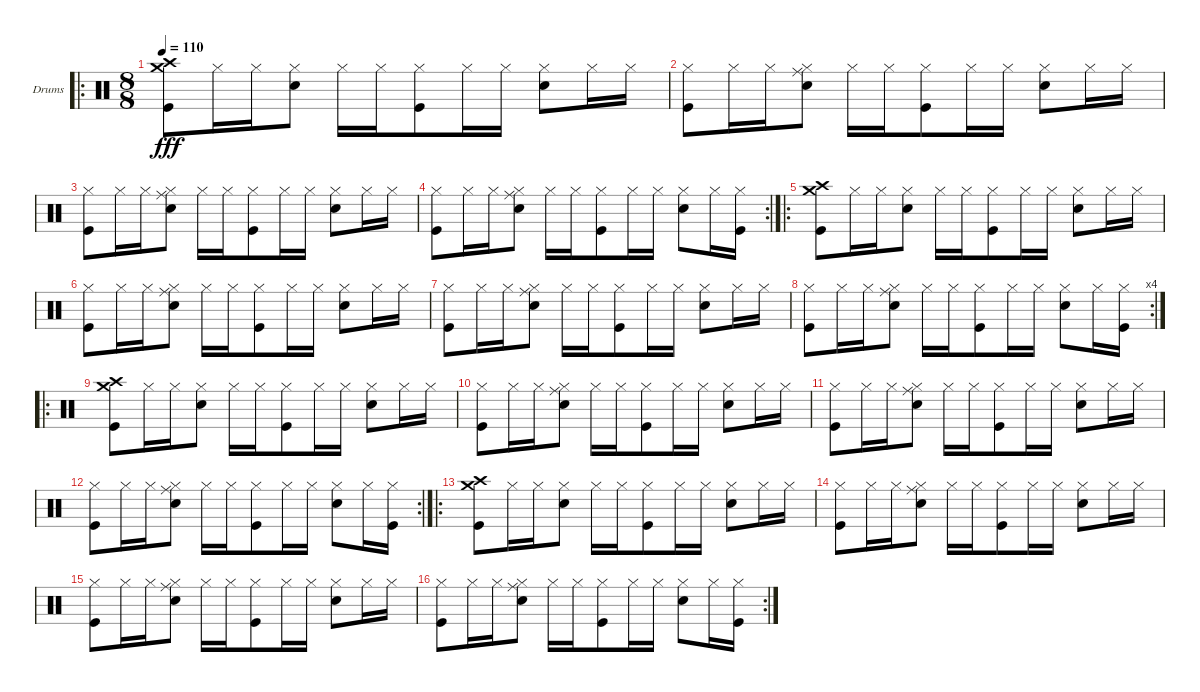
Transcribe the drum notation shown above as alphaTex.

\bracketExtendMode groupsimilarinstruments
\firstSystemTrackNameOrientation horizontal
\otherSystemsTrackNameOrientation horizontal
\track ("Сеня(Drumkit)" "Drums") {instrument percussion}
\staff {score}
\articulation defaults
\ro
\ts (8 8)
\tempo 110
\clef neutral
\ks c
("Kick (hit)" "Crash high (hit)" "Crash medium (hit)").8{dy fff} "Hi-Hat (closed)".16 "Hi-Hat (closed)".16 ("Hi-Hat (closed)" "Snare (hit) 2").8 "Hi-Hat (closed)".16 "Hi-Hat (closed)".16 ("Hi-Hat (closed)" "Kick (hit)").8 "Hi-Hat (closed)".16 "Hi-Hat (closed)".16 ("Hi-Hat (closed)" "Snare (hit) 2").8 "Hi-Hat (closed)".16 "Hi-Hat (closed)".16 |
("Kick (hit)" "Hi-Hat (closed)").8 "Hi-Hat (closed)".16 "Hi-Hat (closed)".16 ("Hi-Hat (closed)" "Ride (middle)" "Snare (hit) 2").8 "Hi-Hat (closed)".16 "Hi-Hat (closed)".16 ("Kick (hit)" "Hi-Hat (closed)").8 "Hi-Hat (closed)".16 "Hi-Hat (closed)".16 ("Snare (hit) 2" "Hi-Hat (closed)").8 "Hi-Hat (closed)".16 "Hi-Hat (closed)".16 |
("Kick (hit)" "Hi-Hat (closed)").8 "Hi-Hat (closed)".16 "Hi-Hat (closed)".16 ("Hi-Hat (closed)" "Snare (hit) 2" "Ride (middle)").8 "Hi-Hat (closed)".16 "Hi-Hat (closed)".16 ("Kick (hit)" "Hi-Hat (closed)").8 "Hi-Hat (closed)".16 "Hi-Hat (closed)".16 ("Snare (hit) 2" "Hi-Hat (closed)").8 "Hi-Hat (closed)".16 "Hi-Hat (closed)".16 |
\rc 2
("Kick (hit)" "Hi-Hat (closed)").8 "Hi-Hat (closed)".16 "Hi-Hat (closed)".16 ("Hi-Hat (closed)" "Snare (hit) 2" "Ride (middle)").8 "Hi-Hat (closed)".16 "Hi-Hat (closed)".16 ("Kick (hit)" "Hi-Hat (closed)").8 "Hi-Hat (closed)".16 "Hi-Hat (closed)".16 ("Snare (hit) 2" "Hi-Hat (closed)").8 "Hi-Hat (closed)".16 ("Kick (hit)" "Hi-Hat (closed)").16 |
\ro
("Kick (hit)" "Crash high (hit)" "Crash medium (hit)").8 "Hi-Hat (closed)".16 "Hi-Hat (closed)".16 ("Hi-Hat (closed)" "Snare (hit) 2").8 "Hi-Hat (closed)".16 "Hi-Hat (closed)".16 ("Hi-Hat (closed)" "Kick (hit)").8 "Hi-Hat (closed)".16 "Hi-Hat (closed)".16 ("Hi-Hat (closed)" "Snare (hit) 2").8 "Hi-Hat (closed)".16 "Hi-Hat (closed)".16 |
("Kick (hit)" "Hi-Hat (closed)").8 "Hi-Hat (closed)".16 "Hi-Hat (closed)".16 ("Hi-Hat (closed)" "Ride (middle)" "Snare (hit) 2").8 "Hi-Hat (closed)".16 "Hi-Hat (closed)".16 ("Kick (hit)" "Hi-Hat (closed)").8 "Hi-Hat (closed)".16 "Hi-Hat (closed)".16 ("Snare (hit) 2" "Hi-Hat (closed)").8 "Hi-Hat (closed)".16 "Hi-Hat (closed)".16 |
("Kick (hit)" "Hi-Hat (closed)").8 "Hi-Hat (closed)".16 "Hi-Hat (closed)".16 ("Hi-Hat (closed)" "Snare (hit) 2" "Ride (middle)").8 "Hi-Hat (closed)".16 "Hi-Hat (closed)".16 ("Kick (hit)" "Hi-Hat (closed)").8 "Hi-Hat (closed)".16 "Hi-Hat (closed)".16 ("Snare (hit) 2" "Hi-Hat (closed)").8 "Hi-Hat (closed)".16 "Hi-Hat (closed)".16 |
\rc 4
("Kick (hit)" "Hi-Hat (closed)").8 "Hi-Hat (closed)".16 "Hi-Hat (closed)".16 ("Hi-Hat (closed)" "Snare (hit) 2" "Ride (middle)").8 "Hi-Hat (closed)".16 "Hi-Hat (closed)".16 ("Kick (hit)" "Hi-Hat (closed)").8 "Hi-Hat (closed)".16 "Hi-Hat (closed)".16 ("Snare (hit) 2" "Hi-Hat (closed)").8 "Hi-Hat (closed)".16 ("Kick (hit)" "Hi-Hat (closed)").16 |
\ro
("Kick (hit)" "Crash high (hit)" "Crash medium (hit)").8 "Hi-Hat (closed)".16 "Hi-Hat (closed)".16 ("Hi-Hat (closed)" "Snare (hit) 2").8 "Hi-Hat (closed)".16 "Hi-Hat (closed)".16 ("Hi-Hat (closed)" "Kick (hit)").8 "Hi-Hat (closed)".16 "Hi-Hat (closed)".16 ("Hi-Hat (closed)" "Snare (hit) 2").8 "Hi-Hat (closed)".16 "Hi-Hat (closed)".16 |
("Kick (hit)" "Hi-Hat (closed)").8 "Hi-Hat (closed)".16 "Hi-Hat (closed)".16 ("Hi-Hat (closed)" "Ride (middle)" "Snare (hit) 2").8 "Hi-Hat (closed)".16 "Hi-Hat (closed)".16 ("Kick (hit)" "Hi-Hat (closed)").8 "Hi-Hat (closed)".16 "Hi-Hat (closed)".16 ("Snare (hit) 2" "Hi-Hat (closed)").8 "Hi-Hat (closed)".16 "Hi-Hat (closed)".16 |
("Kick (hit)" "Hi-Hat (closed)").8 "Hi-Hat (closed)".16 "Hi-Hat (closed)".16 ("Hi-Hat (closed)" "Snare (hit) 2" "Ride (middle)").8 "Hi-Hat (closed)".16 "Hi-Hat (closed)".16 ("Kick (hit)" "Hi-Hat (closed)").8 "Hi-Hat (closed)".16 "Hi-Hat (closed)".16 ("Snare (hit) 2" "Hi-Hat (closed)").8 "Hi-Hat (closed)".16 "Hi-Hat (closed)".16 |
\rc 2
("Kick (hit)" "Hi-Hat (closed)").8 "Hi-Hat (closed)".16 "Hi-Hat (closed)".16 ("Hi-Hat (closed)" "Snare (hit) 2" "Ride (middle)").8 "Hi-Hat (closed)".16 "Hi-Hat (closed)".16 ("Kick (hit)" "Hi-Hat (closed)").8 "Hi-Hat (closed)".16 "Hi-Hat (closed)".16 ("Snare (hit) 2" "Hi-Hat (closed)").8 "Hi-Hat (closed)".16 ("Kick (hit)" "Hi-Hat (closed)").16 |
\ro
("Kick (hit)" "Crash high (hit)" "Crash medium (hit)").8 "Hi-Hat (closed)".16 "Hi-Hat (closed)".16 ("Hi-Hat (closed)" "Snare (hit) 2").8 "Hi-Hat (closed)".16 "Hi-Hat (closed)".16 ("Hi-Hat (closed)" "Kick (hit)").8 "Hi-Hat (closed)".16 "Hi-Hat (closed)".16 ("Hi-Hat (closed)" "Snare (hit) 2").8 "Hi-Hat (closed)".16 "Hi-Hat (closed)".16 |
("Kick (hit)" "Hi-Hat (closed)").8 "Hi-Hat (closed)".16 "Hi-Hat (closed)".16 ("Hi-Hat (closed)" "Ride (middle)" "Snare (hit) 2").8 "Hi-Hat (closed)".16 "Hi-Hat (closed)".16 ("Kick (hit)" "Hi-Hat (closed)").8 "Hi-Hat (closed)".16 "Hi-Hat (closed)".16 ("Snare (hit) 2" "Hi-Hat (closed)").8 "Hi-Hat (closed)".16 "Hi-Hat (closed)".16 |
("Kick (hit)" "Hi-Hat (closed)").8 "Hi-Hat (closed)".16 "Hi-Hat (closed)".16 ("Hi-Hat (closed)" "Snare (hit) 2" "Ride (middle)").8 "Hi-Hat (closed)".16 "Hi-Hat (closed)".16 ("Kick (hit)" "Hi-Hat (closed)").8 "Hi-Hat (closed)".16 "Hi-Hat (closed)".16 ("Snare (hit) 2" "Hi-Hat (closed)").8 "Hi-Hat (closed)".16 "Hi-Hat (closed)".16 |
\rc 2
("Kick (hit)" "Hi-Hat (closed)").8 "Hi-Hat (closed)".16 "Hi-Hat (closed)".16 ("Hi-Hat (closed)" "Snare (hit) 2" "Ride (middle)").8 "Hi-Hat (closed)".16 "Hi-Hat (closed)".16 ("Kick (hit)" "Hi-Hat (closed)").8 "Hi-Hat (closed)".16 "Hi-Hat (closed)".16 ("Snare (hit) 2" "Hi-Hat (closed)").8 "Hi-Hat (closed)".16 ("Kick (hit)" "Hi-Hat (closed)").16
